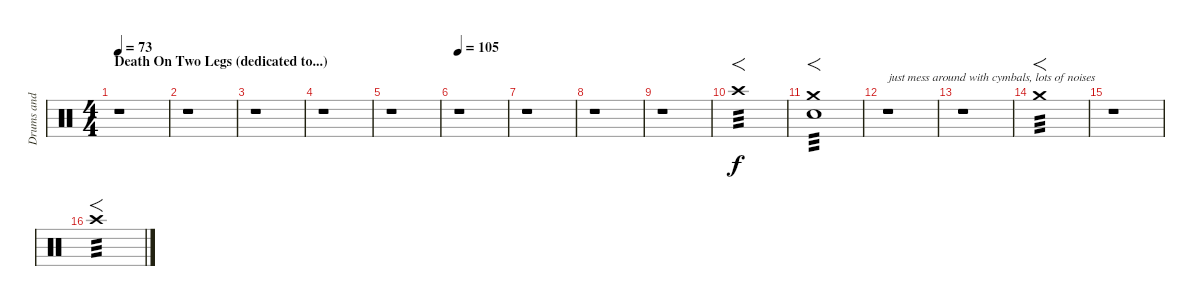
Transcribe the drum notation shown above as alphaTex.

\track ("Drums and percussion" "Drums and ") {instrument percussion}
\staff {score}
\articulation defaults
\ts (4 4)
\section ("" "Death On Two Legs (dedicated to...)")
\tempo 73
\clef neutral
\ks c
r.1{dy f} |
r.1 |
r.1 |
r.1 |
r.1 |
\tempo 105
r.1 |
r.1 |
r.1 |
r.1 |
"Crash high (hit)".1{f tp 3} |
("Crash medium (hit)" "Snare (hit)").1{f tp 3} |
r.1{txt "just mess around with cymbals, lots of noises"} |
r.1 |
"Crash medium (hit)".1{f tp 3} |
r.1 |
"Crash high (hit)".1{f tp 3}
